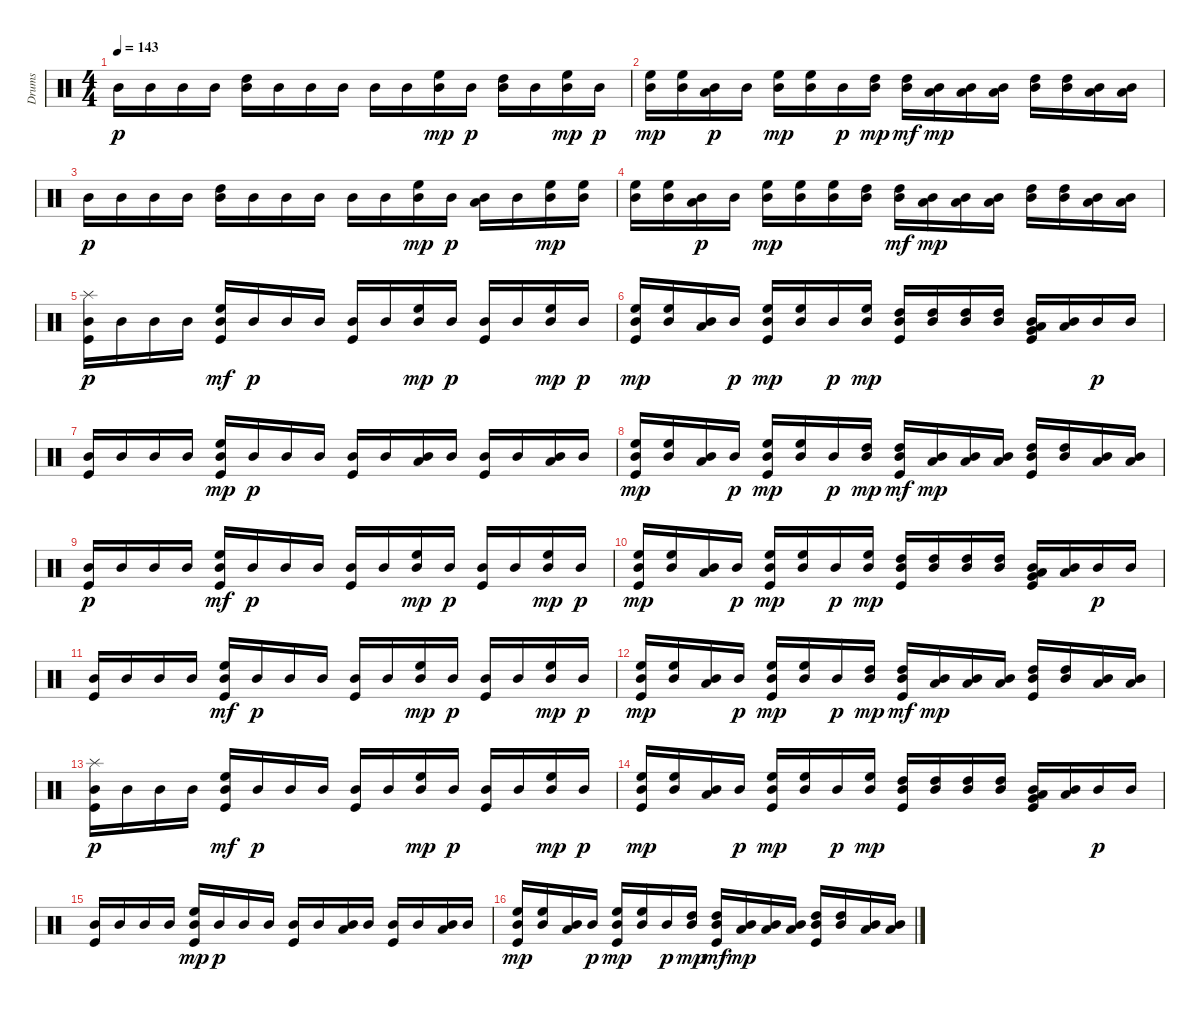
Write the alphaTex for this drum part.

\track ("Drums" "Drums") {instrument percussion}
\staff {score}
\articulation defaults
\ts (4 4)
\tempo 143
\clef neutral
\ks c "Mid Tom (hit)".16{dy p} "Mid Tom (hit)".16 "Mid Tom (hit)".16 "Mid Tom (hit)".16
("Mid Tom (hit)" "High Tom (hit)").16 "Mid Tom (hit)".16 "Mid Tom (hit)".16 "Mid Tom (hit)".16 "Mid Tom (hit)".16 "Mid Tom (hit)".16 ("Mid Tom (hit)" "High Floor Tom (hit)").16{dy mp} "Mid Tom (hit)".16{dy p} ("Mid Tom (hit)" "High Tom (hit)").16 "Mid Tom (hit)".16 ("Mid Tom (hit)" "High Floor Tom (hit)").16{dy mp} "Mid Tom (hit)".16{dy p} |
("Mid Tom (hit)" "High Floor Tom (hit)").16{dy mp} ("Mid Tom (hit)" "High Floor Tom (hit)").16 ("Mid Tom (hit)" "Low Tom (hit)").16{dy p} "Mid Tom (hit)".16 ("Mid Tom (hit)" "High Floor Tom (hit)").16{dy mp} ("Mid Tom (hit)" "High Floor Tom (hit)").16 "Mid Tom (hit)".16{dy p} ("Mid Tom (hit)" "High Tom (hit)").16{dy mp} ("Mid Tom (hit)" "High Tom (hit)").16{dy mf} ("Mid Tom (hit)" "Low Tom (hit)").16{dy mp} ("Mid Tom (hit)" "Low Tom (hit)").16 ("Mid Tom (hit)" "Low Tom (hit)").16 ("Mid Tom (hit)" "High Tom (hit)").16 ("Mid Tom (hit)" "High Tom (hit)").16 ("Mid Tom (hit)" "Low Tom (hit)").16 ("Mid Tom (hit)" "Low Tom (hit)").16 |
"Mid Tom (hit)".16{dy p} "Mid Tom (hit)".16 "Mid Tom (hit)".16 "Mid Tom (hit)".16 ("Mid Tom (hit)" "High Tom (hit)").16 "Mid Tom (hit)".16 "Mid Tom (hit)".16 "Mid Tom (hit)".16 "Mid Tom (hit)".16 "Mid Tom (hit)".16 ("Mid Tom (hit)" "High Floor Tom (hit)").16{dy mp} "Mid Tom (hit)".16{dy p} ("Mid Tom (hit)" "Low Tom (hit)").16 "Mid Tom (hit)".16 ("Mid Tom (hit)" "High Floor Tom (hit)").16{dy mp} ("Mid Tom (hit)" "High Floor Tom (hit)").16 |
("Mid Tom (hit)" "High Floor Tom (hit)").16 ("Mid Tom (hit)" "High Floor Tom (hit)").16 ("Mid Tom (hit)" "Low Tom (hit)").16{dy p} "Mid Tom (hit)".16 ("Mid Tom (hit)" "High Floor Tom (hit)").16{dy mp} ("Mid Tom (hit)" "High Floor Tom (hit)").16 ("Mid Tom (hit)" "High Floor Tom (hit)").16 ("Mid Tom (hit)" "High Tom (hit)").16 ("Mid Tom (hit)" "High Tom (hit)").16{dy mf} ("Mid Tom (hit)" "Low Tom (hit)").16{dy mp} ("Mid Tom (hit)" "Low Tom (hit)").16 ("Mid Tom (hit)" "Low Tom (hit)").16 ("Mid Tom (hit)" "High Tom (hit)").16 ("Mid Tom (hit)" "High Tom (hit)").16 ("Mid Tom (hit)" "Low Tom (hit)").16 ("Mid Tom (hit)" "Low Tom (hit)").16 |
("Kick (hit)" "Mid Tom (hit)" "Splash (hit)").16{dy p} "Mid Tom (hit)".16 "Mid Tom (hit)".16 "Mid Tom (hit)".16 ("Kick (hit)" "Mid Tom (hit)" "High Floor Tom (hit)").16{dy mf} "Mid Tom (hit)".16{dy p} "Mid Tom (hit)".16 "Mid Tom (hit)".16 ("Kick (hit)" "Mid Tom (hit)").16 "Mid Tom (hit)".16 ("Mid Tom (hit)" "High Floor Tom (hit)").16{dy mp} "Mid Tom (hit)".16{dy p} ("Kick (hit)" "Mid Tom (hit)").16 "Mid Tom (hit)".16 ("Mid Tom (hit)" "High Floor Tom (hit)").16{dy mp} "Mid Tom (hit)".16{dy p} |
("Kick (hit)" "Mid Tom (hit)" "High Floor Tom (hit)").16{dy mp} ("Mid Tom (hit)" "High Floor Tom (hit)").16 ("Mid Tom (hit)" "Low Tom (hit)").16 "Mid Tom (hit)".16{dy p} ("Kick (hit)" "Mid Tom (hit)" "High Floor Tom (hit)").16{dy mp} ("Mid Tom (hit)" "High Floor Tom (hit)").16 "Mid Tom (hit)".16{dy p} ("Mid Tom (hit)" "High Floor Tom (hit)").16{dy mp} ("Kick (hit)" "Mid Tom (hit)" "High Tom (hit)").16 ("Mid Tom (hit)" "High Tom (hit)").16 ("Mid Tom (hit)" "High Tom (hit)").16 ("Mid Tom (hit)" "High Tom (hit)").16 ("Kick (hit)" "Mid Tom (hit)" "Low Tom (hit)" "Very Low Tom (hit)").16 ("Mid Tom (hit)" "Low Tom (hit)").16 "Mid Tom (hit)".16{dy p} "Mid Tom (hit)".16 |
("Kick (hit)" "Mid Tom (hit)").16 "Mid Tom (hit)".16 "Mid Tom (hit)".16 "Mid Tom (hit)".16 ("Kick (hit)" "Mid Tom (hit)" "High Floor Tom (hit)").16{dy mp} "Mid Tom (hit)".16{dy p} "Mid Tom (hit)".16 "Mid Tom (hit)".16 ("Kick (hit)" "Mid Tom (hit)").16 "Mid Tom (hit)".16 ("Mid Tom (hit)" "Low Tom (hit)").16 "Mid Tom (hit)".16 ("Kick (hit)" "Mid Tom (hit)").16 "Mid Tom (hit)".16 ("Mid Tom (hit)" "Low Tom (hit)").16 "Mid Tom (hit)".16 |
("Kick (hit)" "Mid Tom (hit)" "High Floor Tom (hit)").16{dy mp} ("Mid Tom (hit)" "High Floor Tom (hit)").16 ("Mid Tom (hit)" "Low Tom (hit)").16 "Mid Tom (hit)".16{dy p} ("Kick (hit)" "Mid Tom (hit)" "High Floor Tom (hit)").16{dy mp} ("Mid Tom (hit)" "High Floor Tom (hit)").16 "Mid Tom (hit)".16{dy p} ("Mid Tom (hit)" "High Tom (hit)").16{dy mp} ("Kick (hit)" "Mid Tom (hit)" "High Tom (hit)").16{dy mf} ("Mid Tom (hit)" "Low Tom (hit)").16{dy mp} ("Mid Tom (hit)" "Low Tom (hit)").16 ("Mid Tom (hit)" "Low Tom (hit)").16 ("Kick (hit)" "Mid Tom (hit)" "High Tom (hit)").16 ("Mid Tom (hit)" "High Tom (hit)").16 ("Mid Tom (hit)" "Low Tom (hit)").16 ("Mid Tom (hit)" "Low Tom (hit)").16 |
("Kick (hit)" "Mid Tom (hit)").16{dy p} "Mid Tom (hit)".16 "Mid Tom (hit)".16 "Mid Tom (hit)".16 ("Kick (hit)" "Mid Tom (hit)" "High Floor Tom (hit)").16{dy mf} "Mid Tom (hit)".16{dy p} "Mid Tom (hit)".16 "Mid Tom (hit)".16 ("Kick (hit)" "Mid Tom (hit)").16 "Mid Tom (hit)".16 ("Mid Tom (hit)" "High Floor Tom (hit)").16{dy mp} "Mid Tom (hit)".16{dy p} ("Kick (hit)" "Mid Tom (hit)").16 "Mid Tom (hit)".16 ("Mid Tom (hit)" "High Floor Tom (hit)").16{dy mp} "Mid Tom (hit)".16{dy p} |
("Kick (hit)" "Mid Tom (hit)" "High Floor Tom (hit)").16{dy mp} ("Mid Tom (hit)" "High Floor Tom (hit)").16 ("Mid Tom (hit)" "Low Tom (hit)").16 "Mid Tom (hit)".16{dy p} ("Kick (hit)" "Mid Tom (hit)" "High Floor Tom (hit)").16{dy mp} ("Mid Tom (hit)" "High Floor Tom (hit)").16 "Mid Tom (hit)".16{dy p} ("Mid Tom (hit)" "High Floor Tom (hit)").16{dy mp} ("Kick (hit)" "Mid Tom (hit)" "High Tom (hit)").16 ("Mid Tom (hit)" "High Tom (hit)").16 ("Mid Tom (hit)" "High Tom (hit)").16 ("Mid Tom (hit)" "High Tom (hit)").16 ("Kick (hit)" "Mid Tom (hit)" "Low Tom (hit)" "Very Low Tom (hit)").16 ("Mid Tom (hit)" "Low Tom (hit)").16 "Mid Tom (hit)".16{dy p} "Mid Tom (hit)".16 |
("Kick (hit)" "Mid Tom (hit)").16 "Mid Tom (hit)".16 "Mid Tom (hit)".16 "Mid Tom (hit)".16 ("Kick (hit)" "Mid Tom (hit)" "High Floor Tom (hit)").16{dy mf} "Mid Tom (hit)".16{dy p} "Mid Tom (hit)".16 "Mid Tom (hit)".16 ("Kick (hit)" "Mid Tom (hit)").16 "Mid Tom (hit)".16 ("Mid Tom (hit)" "High Floor Tom (hit)").16{dy mp} "Mid Tom (hit)".16{dy p} ("Kick (hit)" "Mid Tom (hit)").16 "Mid Tom (hit)".16 ("Mid Tom (hit)" "High Floor Tom (hit)").16{dy mp} "Mid Tom (hit)".16{dy p} |
("Kick (hit)" "Mid Tom (hit)" "High Floor Tom (hit)").16{dy mp} ("Mid Tom (hit)" "High Floor Tom (hit)").16 ("Mid Tom (hit)" "Low Tom (hit)").16 "Mid Tom (hit)".16{dy p} ("Kick (hit)" "Mid Tom (hit)" "High Floor Tom (hit)").16{dy mp} ("Mid Tom (hit)" "High Floor Tom (hit)").16 "Mid Tom (hit)".16{dy p} ("Mid Tom (hit)" "High Tom (hit)").16{dy mp} ("Kick (hit)" "Mid Tom (hit)" "High Tom (hit)").16{dy mf} ("Mid Tom (hit)" "Low Tom (hit)").16{dy mp} ("Mid Tom (hit)" "Low Tom (hit)").16 ("Mid Tom (hit)" "Low Tom (hit)").16 ("Kick (hit)" "Mid Tom (hit)" "High Tom (hit)").16 ("Mid Tom (hit)" "High Tom (hit)").16 ("Mid Tom (hit)" "Low Tom (hit)").16 ("Mid Tom (hit)" "Low Tom (hit)").16 |
("Kick (hit)" "Mid Tom (hit)" "Splash (hit)").16{dy p} "Mid Tom (hit)".16 "Mid Tom (hit)".16 "Mid Tom (hit)".16 ("Kick (hit)" "Mid Tom (hit)" "High Floor Tom (hit)").16{dy mf} "Mid Tom (hit)".16{dy p} "Mid Tom (hit)".16 "Mid Tom (hit)".16 ("Kick (hit)" "Mid Tom (hit)").16 "Mid Tom (hit)".16 ("Mid Tom (hit)" "High Floor Tom (hit)").16{dy mp} "Mid Tom (hit)".16{dy p} ("Kick (hit)" "Mid Tom (hit)").16 "Mid Tom (hit)".16 ("Mid Tom (hit)" "High Floor Tom (hit)").16{dy mp} "Mid Tom (hit)".16{dy p} |
("Kick (hit)" "Mid Tom (hit)" "High Floor Tom (hit)").16{dy mp} ("Mid Tom (hit)" "High Floor Tom (hit)").16 ("Mid Tom (hit)" "Low Tom (hit)").16 "Mid Tom (hit)".16{dy p} ("Kick (hit)" "Mid Tom (hit)" "High Floor Tom (hit)").16{dy mp} ("Mid Tom (hit)" "High Floor Tom (hit)").16 "Mid Tom (hit)".16{dy p} ("Mid Tom (hit)" "High Floor Tom (hit)").16{dy mp} ("Kick (hit)" "Mid Tom (hit)" "High Tom (hit)").16 ("Mid Tom (hit)" "High Tom (hit)").16 ("Mid Tom (hit)" "High Tom (hit)").16 ("Mid Tom (hit)" "High Tom (hit)").16 ("Kick (hit)" "Mid Tom (hit)" "Low Tom (hit)" "Very Low Tom (hit)").16 ("Mid Tom (hit)" "Low Tom (hit)").16 "Mid Tom (hit)".16{dy p} "Mid Tom (hit)".16 |
("Kick (hit)" "Mid Tom (hit)").16 "Mid Tom (hit)".16 "Mid Tom (hit)".16 "Mid Tom (hit)".16 ("Kick (hit)" "Mid Tom (hit)" "High Floor Tom (hit)").16{dy mp} "Mid Tom (hit)".16{dy p} "Mid Tom (hit)".16 "Mid Tom (hit)".16 ("Kick (hit)" "Mid Tom (hit)").16 "Mid Tom (hit)".16 ("Mid Tom (hit)" "Low Tom (hit)").16 "Mid Tom (hit)".16 ("Kick (hit)" "Mid Tom (hit)").16 "Mid Tom (hit)".16 ("Mid Tom (hit)" "Low Tom (hit)").16 "Mid Tom (hit)".16 |
("Kick (hit)" "Mid Tom (hit)" "High Floor Tom (hit)").16{dy mp} ("Mid Tom (hit)" "High Floor Tom (hit)").16 ("Mid Tom (hit)" "Low Tom (hit)").16 "Mid Tom (hit)".16{dy p} ("Kick (hit)" "Mid Tom (hit)" "High Floor Tom (hit)").16{dy mp} ("Mid Tom (hit)" "High Floor Tom (hit)").16 "Mid Tom (hit)".16{dy p} ("Mid Tom (hit)" "High Tom (hit)").16{dy mp} ("Kick (hit)" "Mid Tom (hit)" "High Tom (hit)").16{dy mf} ("Mid Tom (hit)" "Low Tom (hit)").16{dy mp} ("Mid Tom (hit)" "Low Tom (hit)").16 ("Mid Tom (hit)" "Low Tom (hit)").16 ("Kick (hit)" "Mid Tom (hit)" "High Tom (hit)").16 ("Mid Tom (hit)" "High Tom (hit)").16 ("Mid Tom (hit)" "Low Tom (hit)").16 ("Mid Tom (hit)" "Low Tom (hit)").16
